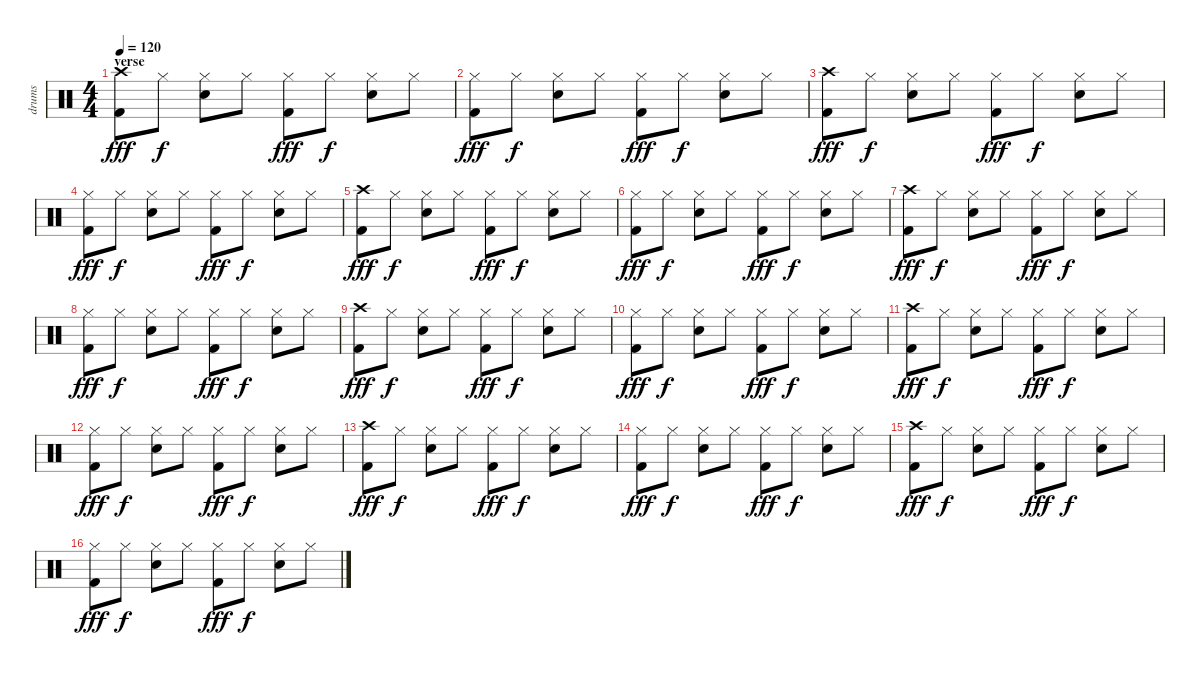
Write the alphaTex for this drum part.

\track ("drums" "drums") {instrument percussion}
\staff {score}
\articulation defaults
\ts (4 4)
\section ("" "verse")
\tempo 120
\clef neutral
\ks c
("Crash high (hit)" "Kick (hit) 2").8{dy fff} "Hi-Hat (closed)".8{dy f} ("Hi-Hat (closed)" "Snare (hit) 2").8 "Hi-Hat (closed)".8 ("Hi-Hat (closed)" "Kick (hit) 2").8{dy fff} "Hi-Hat (closed)".8{dy f} ("Hi-Hat (closed)" "Snare (hit) 2").8 "Hi-Hat (closed)".8 |
("Hi-Hat (closed)" "Kick (hit) 2").8{dy fff} "Hi-Hat (closed)".8{dy f} ("Hi-Hat (closed)" "Snare (hit) 2").8 "Hi-Hat (closed)".8 ("Hi-Hat (closed)" "Kick (hit) 2").8{dy fff} "Hi-Hat (closed)".8{dy f} ("Hi-Hat (closed)" "Snare (hit) 2").8 "Hi-Hat (closed)".8 |
("Crash high (hit)" "Kick (hit) 2").8{dy fff} "Hi-Hat (closed)".8{dy f} ("Hi-Hat (closed)" "Snare (hit) 2").8 "Hi-Hat (closed)".8 ("Hi-Hat (closed)" "Kick (hit) 2").8{dy fff} "Hi-Hat (closed)".8{dy f} ("Hi-Hat (closed)" "Snare (hit) 2").8 "Hi-Hat (closed)".8 |
("Hi-Hat (closed)" "Kick (hit) 2").8{dy fff} "Hi-Hat (closed)".8{dy f} ("Hi-Hat (closed)" "Snare (hit) 2").8 "Hi-Hat (closed)".8 ("Hi-Hat (closed)" "Kick (hit) 2").8{dy fff} "Hi-Hat (closed)".8{dy f} ("Hi-Hat (closed)" "Snare (hit) 2").8 "Hi-Hat (closed)".8 |
("Crash high (hit)" "Kick (hit) 2").8{dy fff} "Hi-Hat (closed)".8{dy f} ("Hi-Hat (closed)" "Snare (hit) 2").8 "Hi-Hat (closed)".8 ("Hi-Hat (closed)" "Kick (hit) 2").8{dy fff} "Hi-Hat (closed)".8{dy f} ("Hi-Hat (closed)" "Snare (hit) 2").8 "Hi-Hat (closed)".8 |
("Hi-Hat (closed)" "Kick (hit) 2").8{dy fff} "Hi-Hat (closed)".8{dy f} ("Hi-Hat (closed)" "Snare (hit) 2").8 "Hi-Hat (closed)".8 ("Hi-Hat (closed)" "Kick (hit) 2").8{dy fff} "Hi-Hat (closed)".8{dy f} ("Hi-Hat (closed)" "Snare (hit) 2").8 "Hi-Hat (closed)".8 |
("Crash high (hit)" "Kick (hit) 2").8{dy fff} "Hi-Hat (closed)".8{dy f} ("Hi-Hat (closed)" "Snare (hit) 2").8 "Hi-Hat (closed)".8 ("Hi-Hat (closed)" "Kick (hit) 2").8{dy fff} "Hi-Hat (closed)".8{dy f} ("Hi-Hat (closed)" "Snare (hit) 2").8 "Hi-Hat (closed)".8 |
("Hi-Hat (closed)" "Kick (hit) 2").8{dy fff} "Hi-Hat (closed)".8{dy f} ("Hi-Hat (closed)" "Snare (hit) 2").8 "Hi-Hat (closed)".8 ("Hi-Hat (closed)" "Kick (hit) 2").8{dy fff} "Hi-Hat (closed)".8{dy f} ("Hi-Hat (closed)" "Snare (hit) 2").8 "Hi-Hat (closed)".8 |
("Crash high (hit)" "Kick (hit) 2").8{dy fff} "Hi-Hat (closed)".8{dy f} ("Hi-Hat (closed)" "Snare (hit) 2").8 "Hi-Hat (closed)".8 ("Hi-Hat (closed)" "Kick (hit) 2").8{dy fff} "Hi-Hat (closed)".8{dy f} ("Hi-Hat (closed)" "Snare (hit) 2").8 "Hi-Hat (closed)".8 |
("Hi-Hat (closed)" "Kick (hit) 2").8{dy fff} "Hi-Hat (closed)".8{dy f} ("Hi-Hat (closed)" "Snare (hit) 2").8 "Hi-Hat (closed)".8 ("Hi-Hat (closed)" "Kick (hit) 2").8{dy fff} "Hi-Hat (closed)".8{dy f} ("Hi-Hat (closed)" "Snare (hit) 2").8 "Hi-Hat (closed)".8 |
("Crash high (hit)" "Kick (hit) 2").8{dy fff} "Hi-Hat (closed)".8{dy f} ("Hi-Hat (closed)" "Snare (hit) 2").8 "Hi-Hat (closed)".8 ("Hi-Hat (closed)" "Kick (hit) 2").8{dy fff} "Hi-Hat (closed)".8{dy f} ("Hi-Hat (closed)" "Snare (hit) 2").8 "Hi-Hat (closed)".8 |
("Hi-Hat (closed)" "Kick (hit) 2").8{dy fff} "Hi-Hat (closed)".8{dy f} ("Hi-Hat (closed)" "Snare (hit) 2").8 "Hi-Hat (closed)".8 ("Hi-Hat (closed)" "Kick (hit) 2").8{dy fff} "Hi-Hat (closed)".8{dy f} ("Hi-Hat (closed)" "Snare (hit) 2").8 "Hi-Hat (closed)".8 |
("Crash high (hit)" "Kick (hit) 2").8{dy fff} "Hi-Hat (closed)".8{dy f} ("Hi-Hat (closed)" "Snare (hit) 2").8 "Hi-Hat (closed)".8 ("Hi-Hat (closed)" "Kick (hit) 2").8{dy fff} "Hi-Hat (closed)".8{dy f} ("Hi-Hat (closed)" "Snare (hit) 2").8 "Hi-Hat (closed)".8 |
("Hi-Hat (closed)" "Kick (hit) 2").8{dy fff} "Hi-Hat (closed)".8{dy f} ("Hi-Hat (closed)" "Snare (hit) 2").8 "Hi-Hat (closed)".8 ("Hi-Hat (closed)" "Kick (hit) 2").8{dy fff} "Hi-Hat (closed)".8{dy f} ("Hi-Hat (closed)" "Snare (hit) 2").8 "Hi-Hat (closed)".8 |
("Crash high (hit)" "Kick (hit) 2").8{dy fff} "Hi-Hat (closed)".8{dy f} ("Hi-Hat (closed)" "Snare (hit) 2").8 "Hi-Hat (closed)".8 ("Hi-Hat (closed)" "Kick (hit) 2").8{dy fff} "Hi-Hat (closed)".8{dy f} ("Hi-Hat (closed)" "Snare (hit) 2").8 "Hi-Hat (closed)".8 |
("Hi-Hat (closed)" "Kick (hit) 2").8{dy fff} "Hi-Hat (closed)".8{dy f} ("Hi-Hat (closed)" "Snare (hit) 2").8 "Hi-Hat (closed)".8 ("Hi-Hat (closed)" "Kick (hit) 2").8{dy fff} "Hi-Hat (closed)".8{dy f} ("Hi-Hat (closed)" "Snare (hit) 2").8 "Hi-Hat (closed)".8
